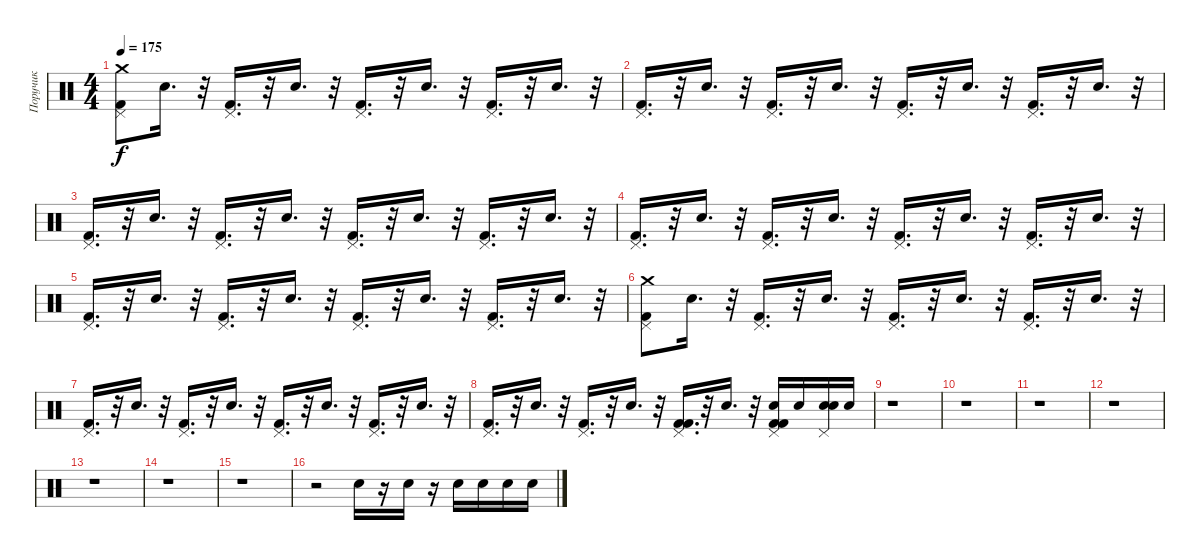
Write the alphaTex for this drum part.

\track ("Поручик" "Поручик") {instrument percussion}
\staff {score}
\articulation defaults
\ts (4 4)
\tempo 175
\clef neutral
\ks c
("Crash medium (hit)" "Kick (hit) 2" "Pedal Hi-Hat (hit)").8{dy f} "Snare (hit) 2".16{d} r.32 ("Kick (hit) 2" "Pedal Hi-Hat (hit)").16{d} r.32 "Snare (hit) 2".16{d} r.32 ("Kick (hit) 2" "Pedal Hi-Hat (hit)").16{d} r.32 "Snare (hit) 2".16{d} r.32 ("Kick (hit) 2" "Pedal Hi-Hat (hit)").16{d} r.32 "Snare (hit) 2".16{d} r.32 |
("Kick (hit) 2" "Pedal Hi-Hat (hit)").16{d} r.32 "Snare (hit) 2".16{d} r.32 ("Pedal Hi-Hat (hit)" "Kick (hit) 2").16{d} r.32 "Snare (hit) 2".16{d} r.32 ("Pedal Hi-Hat (hit)" "Kick (hit) 2").16{d} r.32 "Snare (hit) 2".16{d} r.32 ("Kick (hit) 2" "Pedal Hi-Hat (hit)").16{d} r.32 "Snare (hit) 2".16{d} r.32 |
("Kick (hit) 2" "Pedal Hi-Hat (hit)").16{d} r.32 "Snare (hit) 2".16{d} r.32 ("Kick (hit) 2" "Pedal Hi-Hat (hit)").16{d} r.32 "Snare (hit) 2".16{d} r.32 ("Kick (hit) 2" "Pedal Hi-Hat (hit)").16{d} r.32 "Snare (hit) 2".16{d} r.32 ("Kick (hit) 2" "Pedal Hi-Hat (hit)").16{d} r.32 "Snare (hit) 2".16{d} r.32 |
("Kick (hit) 2" "Pedal Hi-Hat (hit)").16{d} r.32 "Snare (hit) 2".16{d} r.32 ("Kick (hit) 2" "Pedal Hi-Hat (hit)").16{d} r.32 "Snare (hit) 2".16{d} r.32 ("Pedal Hi-Hat (hit)" "Kick (hit) 2").16{d} r.32 "Snare (hit) 2".16{d} r.32 ("Kick (hit) 2" "Pedal Hi-Hat (hit)").16{d} r.32 "Snare (hit) 2".16{d} r.32 |
("Kick (hit) 2" "Pedal Hi-Hat (hit)").16{d} r.32 "Snare (hit) 2".16{d} r.32 ("Pedal Hi-Hat (hit)" "Kick (hit) 2").16{d} r.32 "Snare (hit) 2".16{d} r.32 ("Kick (hit) 2" "Pedal Hi-Hat (hit)").16{d} r.32 "Snare (hit) 2".16{d} r.32 ("Kick (hit) 2" "Pedal Hi-Hat (hit)").16{d} r.32 "Snare (hit) 2".16{d} r.32 |
("Pedal Hi-Hat (hit)" "Kick (hit) 2" "Crash medium (hit)").8 "Snare (hit) 2".16{d} r.32 ("Kick (hit) 2" "Pedal Hi-Hat (hit)").16{d} r.32 "Snare (hit) 2".16{d} r.32 ("Pedal Hi-Hat (hit)" "Kick (hit) 2").16{d} r.32 "Snare (hit) 2".16{d} r.32 ("Kick (hit) 2" "Pedal Hi-Hat (hit)").16{d} r.32 "Snare (hit) 2".16{d} r.32 |
("Kick (hit) 2" "Pedal Hi-Hat (hit)").16{d} r.32 "Snare (hit) 2".16{d} r.32 ("Pedal Hi-Hat (hit)" "Kick (hit) 2").16{d} r.32 "Snare (hit) 2".16{d} r.32 ("Pedal Hi-Hat (hit)" "Kick (hit) 2").16{d} r.32 "Snare (hit) 2".16{d} r.32 ("Kick (hit) 2" "Pedal Hi-Hat (hit)").16{d} r.32 "Snare (hit) 2".16{d} r.32 |
("Pedal Hi-Hat (hit)" "Kick (hit) 2").16{d} r.32 "Snare (hit) 2".16{d} r.32 ("Kick (hit) 2" "Pedal Hi-Hat (hit)").16{d} r.32 "Snare (hit) 2".16{d} r.32 ("Kick (hit) 2" "Pedal Hi-Hat (hit)" "Kick (hit) 2").16{d} r.32 "Snare (hit) 2".16{d} r.32 ("Kick (hit) 2" "Snare (hit) 2" "Kick (hit) 2" "Pedal Hi-Hat (hit)").16 "Snare (hit) 2".16 ("Snare (hit) 2" "Pedal Hi-Hat (hit)" "Snare (hit) 2").16 "Snare (hit) 2".16 |
r.1 |
r.1 |
r.1 |
r.1 |
r.1 |
r.1 |
r.1 |
r.2 "Snare (hit) 2".16 r.16 "Snare (hit) 2".16 r.16 "Snare (hit) 2".16 "Snare (hit) 2".16 "Snare (hit) 2".16 "Snare (hit) 2".16
